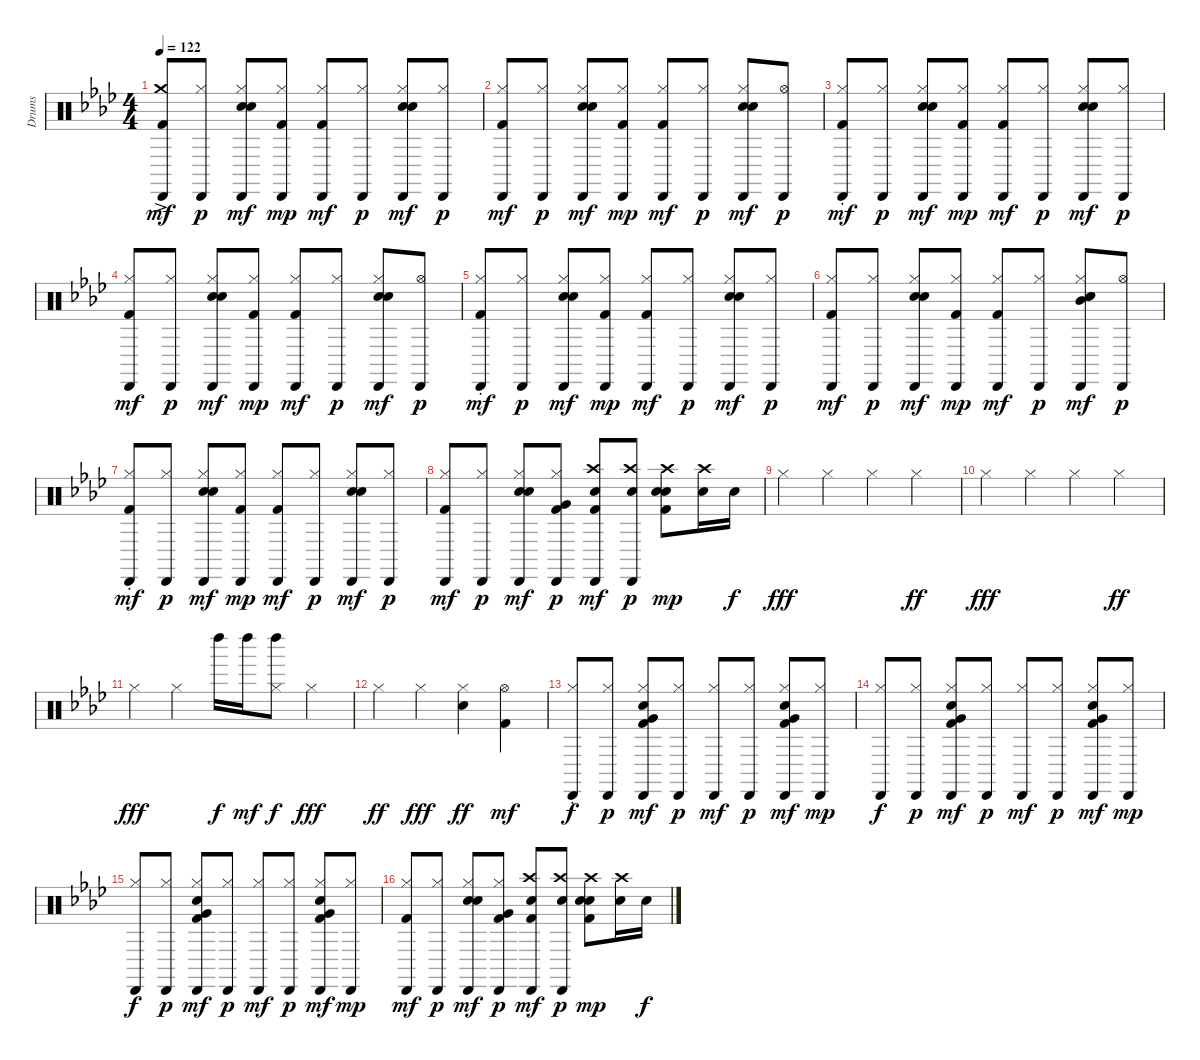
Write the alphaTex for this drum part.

\track ("Drums" "Drums") {instrument percussion}
\staff {score}
\articulation defaults
\ts (4 4)
\tempo 122
\clef neutral
\ks ab
("Crash medium (hit)"{ac} "Cabasa (hit)" "Kick (hit) 2").8{dy mf} ("Hi-Hat (closed)" "Cabasa (hit)").8{dy p} ("Hi-Hat (closed)" "Cabasa (hit)" "Hand Clap (hit)" "Electric Snare (hit)").8{dy mf} ("Hi-Hat (closed)" "Cabasa (hit)" "Kick (hit) 2").8{dy mp} ("Hi-Hat (closed)" "Cabasa (hit)" "Kick (hit) 2").8{dy mf} ("Hi-Hat (closed)" "Cabasa (hit)").8{dy p} ("Hi-Hat (closed)" "Cabasa (hit)" "Hand Clap (hit)" "Electric Snare (hit)").8{dy mf} ("Hi-Hat (closed)" "Cabasa (hit)").8{dy p} |
("Hi-Hat (closed)" "Cabasa (hit)" "Kick (hit) 2").8{dy mf} ("Hi-Hat (closed)" "Cabasa (hit)").8{dy p} ("Hi-Hat (closed)" "Cabasa (hit)" "Hand Clap (hit)" "Electric Snare (hit)").8{dy mf} ("Hi-Hat (closed)" "Cabasa (hit)" "Kick (hit) 2").8{dy mp} ("Hi-Hat (closed)" "Cabasa (hit)" "Kick (hit) 2").8{dy mf} ("Hi-Hat (closed)" "Cabasa (hit)").8{dy p} ("Hi-Hat (closed)" "Cabasa (hit)" "Hand Clap (hit)" "Electric Snare (hit)").8{dy mf} ("Hi-Hat (open)" "Cabasa (hit)").8{dy p} |
("Hi-Hat (closed)"{st} "Cabasa (hit)" "Kick (hit) 2").8{dy mf} ("Hi-Hat (closed)" "Cabasa (hit)").8{dy p} ("Hi-Hat (closed)" "Cabasa (hit)" "Hand Clap (hit)" "Electric Snare (hit)").8{dy mf} ("Hi-Hat (closed)" "Cabasa (hit)" "Kick (hit) 2").8{dy mp} ("Hi-Hat (closed)" "Cabasa (hit)" "Kick (hit) 2").8{dy mf} ("Hi-Hat (closed)" "Cabasa (hit)").8{dy p} ("Hi-Hat (closed)" "Cabasa (hit)" "Hand Clap (hit)" "Electric Snare (hit)").8{dy mf} ("Hi-Hat (closed)" "Cabasa (hit)").8{dy p} |
("Hi-Hat (closed)" "Cabasa (hit)" "Kick (hit) 2").8{dy mf} ("Hi-Hat (closed)" "Cabasa (hit)").8{dy p} ("Hi-Hat (closed)" "Cabasa (hit)" "Hand Clap (hit)" "Electric Snare (hit)").8{dy mf} ("Hi-Hat (closed)" "Cabasa (hit)" "Kick (hit) 2").8{dy mp} ("Hi-Hat (closed)" "Cabasa (hit)" "Kick (hit) 2").8{dy mf} ("Hi-Hat (closed)" "Cabasa (hit)").8{dy p} ("Hi-Hat (closed)" "Cabasa (hit)" "Hand Clap (hit)" "Electric Snare (hit)").8{dy mf} ("Hi-Hat (open)" "Cabasa (hit)").8{dy p} |
("Hi-Hat (closed)"{st} "Cabasa (hit)" "Kick (hit) 2").8{dy mf} ("Hi-Hat (closed)" "Cabasa (hit)").8{dy p} ("Hi-Hat (closed)" "Cabasa (hit)" "Hand Clap (hit)" "Electric Snare (hit)").8{dy mf} ("Hi-Hat (closed)" "Cabasa (hit)" "Kick (hit) 2").8{dy mp} ("Hi-Hat (closed)" "Cabasa (hit)" "Kick (hit) 2").8{dy mf} ("Hi-Hat (closed)" "Cabasa (hit)").8{dy p} ("Hi-Hat (closed)" "Cabasa (hit)" "Hand Clap (hit)" "Electric Snare (hit)").8{dy mf} ("Hi-Hat (closed)" "Cabasa (hit)").8{dy p} |
("Hi-Hat (closed)" "Cabasa (hit)" "Kick (hit) 2").8{dy mf} ("Hi-Hat (closed)" "Cabasa (hit)").8{dy p} ("Hi-Hat (closed)" "Cabasa (hit)" "Hand Clap (hit)" "Electric Snare (hit)").8{dy mf} ("Hi-Hat (closed)" "Cabasa (hit)" "Kick (hit) 2").8{dy mp} ("Hi-Hat (closed)" "Cabasa (hit)" "Kick (hit) 2").8{dy mf} ("Hi-Hat (closed)" "Cabasa (hit)").8{dy p} ("Hi-Hat (closed)" "Cabasa (hit)" "Hand Clap (hit)" "Mid Tom (hit)" "Electric Snare (hit)").8{dy mf} ("Hi-Hat (open)" "Cabasa (hit)").8{dy p} |
("Hi-Hat (closed)"{st} "Cabasa (hit)" "Kick (hit) 2").8{dy mf} ("Hi-Hat (closed)" "Cabasa (hit)").8{dy p} ("Hi-Hat (closed)" "Cabasa (hit)" "Hand Clap (hit)" "Electric Snare (hit)").8{dy mf} ("Hi-Hat (closed)" "Cabasa (hit)" "Kick (hit) 2").8{dy mp} ("Hi-Hat (closed)" "Cabasa (hit)" "Kick (hit) 2").8{dy mf} ("Hi-Hat (closed)" "Cabasa (hit)").8{dy p} ("Hi-Hat (closed)" "Cabasa (hit)" "Hand Clap (hit)" "Electric Snare (hit)").8{dy mf} ("Hi-Hat (closed)" "Cabasa (hit)").8{dy p} |
("Hi-Hat (closed)" "Cabasa (hit)" "Kick (hit) 2").8{dy mf} ("Hi-Hat (closed)" "Cabasa (hit)").8{dy p} ("Hi-Hat (closed)" "Cabasa (hit)" "Hand Clap (hit)" "Electric Snare (hit)").8{dy mf} ("Hi-Hat (closed)" "Cabasa (hit)" "Very Low Tom (hit)" "Kick (hit) 2").8{dy p} ("Crash high (hit)" "Cabasa (hit)" "Electric Snare (hit)" "Kick (hit) 2").8{dy mf} ("Crash high (hit)" "Cabasa (hit)" "Electric Snare (hit)").8{dy p} ("Crash high (hit)" "Hand Clap (hit)" "Electric Snare (hit)" "Kick (hit) 2").8{dy mp} ("Crash high (hit)" "Electric Snare (hit)").16 "Electric Snare (hit)".16{dy f} |
"Hi-Hat (closed)".4{dy fff} "Hi-Hat (closed)".4 "Hi-Hat (closed)".4 "Hi-Hat (closed)".4{dy ff} |
"Hi-Hat (closed)".4{dy fff} "Hi-Hat (closed)".4 "Hi-Hat (closed)".4 "Hi-Hat (closed)".4{dy ff} |
"Hi-Hat (closed)".4{dy fff} "Hi-Hat (closed)".4 "Left Maraca (hit)".16{dy f} "Left Maraca (hit)".16{dy mf} ("Hi-Hat (closed)" "Left Maraca (hit)").8{dy f} "Hi-Hat (closed)".4{dy fff} |
"Hi-Hat (closed)".4{dy ff} "Hi-Hat (closed)".4{dy fff} ("Hi-Hat (closed)" "Electric Snare (hit)").4{dy ff} ("Hi-Hat (open)" "Kick (hit) 2").4{dy mf} |
("Hi-Hat (closed)"{st} "Cabasa (hit)").8{dy f} ("Hi-Hat (closed)" "Cabasa (hit)").8{dy p} ("Hi-Hat (closed)" "Cabasa (hit)" "Very Low Tom (hit)" "Electric Snare (hit)" "Kick (hit) 2").8{dy mf} ("Hi-Hat (closed)" "Cabasa (hit)").8{dy p} ("Hi-Hat (closed)" "Cabasa (hit)").8{dy mf} ("Hi-Hat (closed)" "Cabasa (hit)").8{dy p} ("Hi-Hat (closed)" "Cabasa (hit)" "Very Low Tom (hit)" "Electric Snare (hit)" "Kick (hit) 2").8{dy mf} ("Hi-Hat (closed)" "Cabasa (hit)").8{dy mp} |
("Hi-Hat (closed)" "Cabasa (hit)").8{dy f} ("Hi-Hat (closed)" "Cabasa (hit)").8{dy p} ("Hi-Hat (closed)" "Cabasa (hit)" "Very Low Tom (hit)" "Electric Snare (hit)" "Kick (hit) 2").8{dy mf} ("Hi-Hat (closed)" "Cabasa (hit)").8{dy p} ("Hi-Hat (closed)" "Cabasa (hit)").8{dy mf} ("Hi-Hat (closed)" "Cabasa (hit)").8{dy p} ("Hi-Hat (closed)" "Cabasa (hit)" "Very Low Tom (hit)" "Electric Snare (hit)" "Kick (hit) 2").8{dy mf} ("Hi-Hat (closed)" "Cabasa (hit)").8{dy mp} |
("Hi-Hat (closed)" "Cabasa (hit)").8{dy f} ("Hi-Hat (closed)" "Cabasa (hit)").8{dy p} ("Hi-Hat (closed)" "Cabasa (hit)" "Very Low Tom (hit)" "Electric Snare (hit)" "Kick (hit) 2").8{dy mf} ("Hi-Hat (closed)" "Cabasa (hit)").8{dy p} ("Hi-Hat (closed)" "Cabasa (hit)").8{dy mf} ("Hi-Hat (closed)" "Cabasa (hit)").8{dy p} ("Hi-Hat (closed)" "Cabasa (hit)" "Very Low Tom (hit)" "Electric Snare (hit)" "Kick (hit) 2").8{dy mf} ("Hi-Hat (closed)" "Cabasa (hit)").8{dy mp} |
("Hi-Hat (closed)" "Cabasa (hit)" "Kick (hit) 2").8{dy mf} ("Hi-Hat (closed)" "Cabasa (hit)").8{dy p} ("Hi-Hat (closed)" "Cabasa (hit)" "Hand Clap (hit)" "Electric Snare (hit)").8{dy mf} ("Hi-Hat (closed)" "Cabasa (hit)" "Very Low Tom (hit)" "Kick (hit) 2").8{dy p} ("Crash high (hit)" "Cabasa (hit)" "Electric Snare (hit)" "Kick (hit) 2").8{dy mf} ("Crash high (hit)" "Cabasa (hit)" "Electric Snare (hit)").8{dy p} ("Crash high (hit)" "Hand Clap (hit)" "Electric Snare (hit)" "Kick (hit) 2").8{dy mp} ("Crash high (hit)" "Electric Snare (hit)").16 "Electric Snare (hit)".16{dy f}
